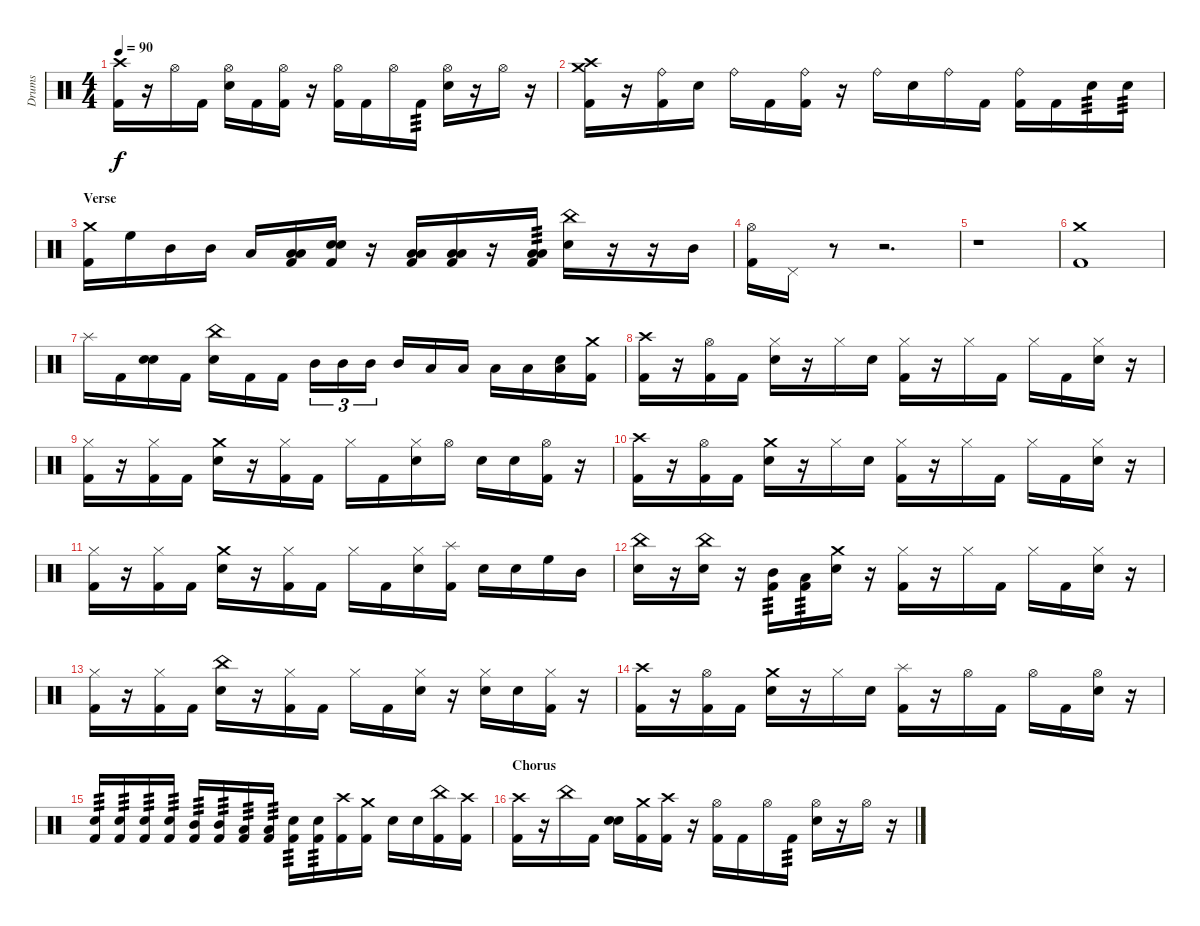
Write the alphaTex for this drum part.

\track ("Drums" "Drums") {instrument percussion}
\staff {score}
\articulation defaults
\ts (4 4)
\tempo 90
\clef neutral
\ks c
("Crash high (hit)" "Kick (hit) 2").16{dy f} r.16 "Hi-Hat (open)".16 "Kick (hit) 2".16 ("Hi-Hat (open)" "Snare (hit) 2").16 "Kick (hit) 2".16 ("Hi-Hat (open)" "Kick (hit) 2").16 r.16 ("Hi-Hat (open)" "Kick (hit) 2").16 "Kick (hit) 2".16 "Hi-Hat (open)".16 "Kick (hit) 2".16{tp 3} ("Hi-Hat (open)" "Snare (hit) 2").16 r.16 "Hi-Hat (open)".16 r.16 |
("Crash high (hit)" "Crash medium (hit)" "Kick (hit) 2").16 r.16 ("Ride (bell)" "Kick (hit) 2").16 "Snare (hit) 2".16 "Ride (bell)".16 "Kick (hit) 2".16 ("Ride (bell)" "Kick (hit) 2").16 r.16 "Ride (bell)".16 "Snare (hit) 2".16 "Ride (bell)".16 "Kick (hit) 2".16 ("Ride (bell)" "Kick (hit) 2").16 "Kick (hit) 2".16 "Snare (hit) 2".16{tp 3} "Snare (hit) 2".16{tp 3} |
\section ("" "Verse")
("Crash medium (hit)" "Kick (hit) 2").16 "High Floor Tom (hit)".16 "Mid Tom (hit)".16 "Mid Tom (hit)".16 "Low Tom (hit)".16 ("Low Tom (hit)" "Low Floor Tom (hit)" "Kick (hit) 2").16 ("Snare (hit) 2" "Snare (hit) 2" "Kick (hit) 2").16 r.16 ("Low Tom (hit)" "Low Floor Tom (hit)" "Kick (hit) 2").16 ("Low Tom (hit)" "Low Floor Tom (hit)" "Kick (hit) 2").16 r.16 ("Low Tom (hit)" "Low Floor Tom (hit)" "Kick (hit) 2").16{tp 3} ("China (hit)" "Snare (hit) 2").16 r.16 r.16 "Mid Tom (hit)".16 |
("Hi-Hat (open)" "Kick (hit) 2").16 "Pedal Hi-Hat (hit)".16 r.8 r.2{d} |
r.1 |
("Crash medium (hit)" "Kick (hit) 2").1 |
"Splash (hit)".16 "Kick (hit) 2".16 ("Snare (hit) 2" "Snare (hit) 2").16 "Kick (hit) 2".16 ("China (hit)" "Snare (hit) 2").16 "Kick (hit) 2".16 "Kick (hit) 2".16 "Mid Tom (hit)".16{tu (3 2)} "Mid Tom (hit)".16{tu (3 2)} "Mid Tom (hit)".16{tu (3 2)} "Mid Tom (hit)".16 "Low Tom (hit)".16 "Low Tom (hit)".16 "Low Floor Tom (hit)".16 "Low Floor Tom (hit)".16 ("Snare (hit) 2" "Low Floor Tom (hit)").16 ("Crash medium (hit)" "Kick (hit) 2").16 |
("Crash high (hit)" "Kick (hit) 2").16 r.16 ("Hi-Hat (open)" "Kick (hit) 2").16 "Kick (hit) 2".16 ("Hi-Hat (closed)" "Snare (hit) 2").16 r.16 "Hi-Hat (closed)".16 "Snare (hit) 2".16 ("Hi-Hat (closed)" "Kick (hit) 2").16 r.16 "Hi-Hat (closed)".16 "Kick (hit) 2".16 "Hi-Hat (closed)".16 "Kick (hit) 2".16 ("Hi-Hat (closed)" "Snare (hit) 2").16 r.16 |
("Hi-Hat (closed)" "Kick (hit) 2").16 r.16 ("Hi-Hat (closed)" "Kick (hit) 2").16 "Kick (hit) 2".16 ("Crash medium (hit)" "Snare (hit) 2").16 r.16 ("Hi-Hat (closed)" "Kick (hit) 2").16 "Kick (hit) 2".16 "Hi-Hat (closed)".16 "Kick (hit) 2".16 ("Hi-Hat (closed)" "Snare (hit) 2").16 "Hi-Hat (open)".16 "Snare (hit) 2".16 "Snare (hit) 2".16 ("Hi-Hat (open)" "Kick (hit) 2").16 r.16 |
("Crash high (hit)" "Kick (hit) 2").16 r.16 ("Hi-Hat (open)" "Kick (hit) 2").16 "Kick (hit) 2".16 ("Crash medium (hit)" "Snare (hit) 2").16 r.16 "Hi-Hat (closed)".16 "Snare (hit) 2".16 ("Hi-Hat (closed)" "Kick (hit) 2").16 r.16 "Hi-Hat (closed)".16 "Kick (hit) 2".16 "Hi-Hat (closed)".16 "Kick (hit) 2".16 ("Hi-Hat (closed)" "Snare (hit) 2").16 r.16 |
("Hi-Hat (closed)" "Kick (hit) 2").16 r.16 ("Hi-Hat (closed)" "Kick (hit) 2").16 "Kick (hit) 2".16 ("Crash medium (hit)" "Snare (hit) 2").16 r.16 ("Hi-Hat (closed)" "Kick (hit) 2").16 "Kick (hit) 2".16 "Hi-Hat (closed)".16 "Kick (hit) 2".16 ("Hi-Hat (closed)" "Snare (hit) 2").16 ("Splash (hit)" "Kick (hit) 2").16 "Snare (hit) 2".16 "Snare (hit) 2".16 "High Floor Tom (hit)".16 "Mid Tom (hit)".16 |
("China (hit)" "Snare (hit) 2").16 r.16 ("China (hit)" "Snare (hit) 2").16 r.16 ("Mid Tom (hit)" "Kick (hit) 2").16{tp 3} ("Low Tom (hit)" "Kick (hit) 2").16{tp 3} ("Crash medium (hit)" "Snare (hit) 2").16 r.16 ("Hi-Hat (closed)" "Kick (hit) 2").16 r.16 "Hi-Hat (closed)".16 "Kick (hit) 2".16 "Hi-Hat (closed)".16 "Kick (hit) 2".16 ("Hi-Hat (closed)" "Snare (hit) 2").16 r.16 |
("Hi-Hat (closed)" "Kick (hit) 2").16 r.16 ("Hi-Hat (closed)" "Kick (hit) 2").16 "Kick (hit) 2".16 ("China (hit)" "Snare (hit) 2").16 r.16 ("Hi-Hat (closed)" "Kick (hit) 2").16 "Kick (hit) 2".16 "Hi-Hat (closed)".16 "Kick (hit) 2".16 ("Hi-Hat (closed)" "Snare (hit) 2").16 r.16 ("Hi-Hat (closed)" "Snare (hit) 2").16 "Snare (hit) 2".16 ("Hi-Hat (closed)" "Kick (hit) 2").16 r.16 |
("Crash high (hit)" "Kick (hit) 2").16 r.16 ("Hi-Hat (open)" "Kick (hit) 2").16 "Kick (hit) 2".16 ("Crash medium (hit)" "Snare (hit) 2").16 r.16 "Hi-Hat (closed)".16 "Snare (hit) 2".16 ("Splash (hit)" "Kick (hit) 2").16 r.16 "Hi-Hat (open)".16 "Kick (hit) 2".16 "Hi-Hat (open)".16 "Kick (hit) 2".16 ("Hi-Hat (open)" "Snare (hit) 2").16 r.16 |
("Snare (hit) 2" "Kick (hit) 2").16{tp 3} ("Snare (hit) 2" "Kick (hit) 2").16{tp 3} ("Snare (hit) 2" "Kick (hit) 2").16{tp 3} ("Snare (hit) 2" "Kick (hit) 2").16{tp 3} ("Mid Tom (hit)" "Kick (hit) 2").16{tp 3} ("Mid Tom (hit)" "Kick (hit) 2").16{tp 3} ("Low Tom (hit)" "Kick (hit) 2").16{tp 3} ("Low Tom (hit)" "Kick (hit) 2").16{tp 3} ("Snare (hit) 2" "Kick (hit) 2").16{tp 3} ("Snare (hit) 2" "Kick (hit) 2").16{tp 3} ("Crash high (hit)" "Kick (hit) 2").16 ("Crash medium (hit)" "Kick (hit) 2").16 "Snare (hit) 2".16 "Snare (hit) 2".16 ("China (hit)" "Kick (hit) 2").16 ("Crash high (hit)" "Kick (hit) 2").16 |
\section ("" "Chorus")
("Crash high (hit)" "Kick (hit) 2").16 r.16 "China (hit)".16 "Kick (hit) 2".16 ("Snare (hit) 2" "Snare (hit) 2").16 ("Crash medium (hit)" "Kick (hit) 2").16 ("Crash high (hit)" "Kick (hit) 2").16 r.16 ("Hi-Hat (open)" "Kick (hit) 2").16 "Kick (hit) 2".16 "Hi-Hat (open)".16 "Kick (hit) 2".16{tp 3} ("Hi-Hat (open)" "Snare (hit) 2").16 r.16 "Hi-Hat (open)".16 r.16
